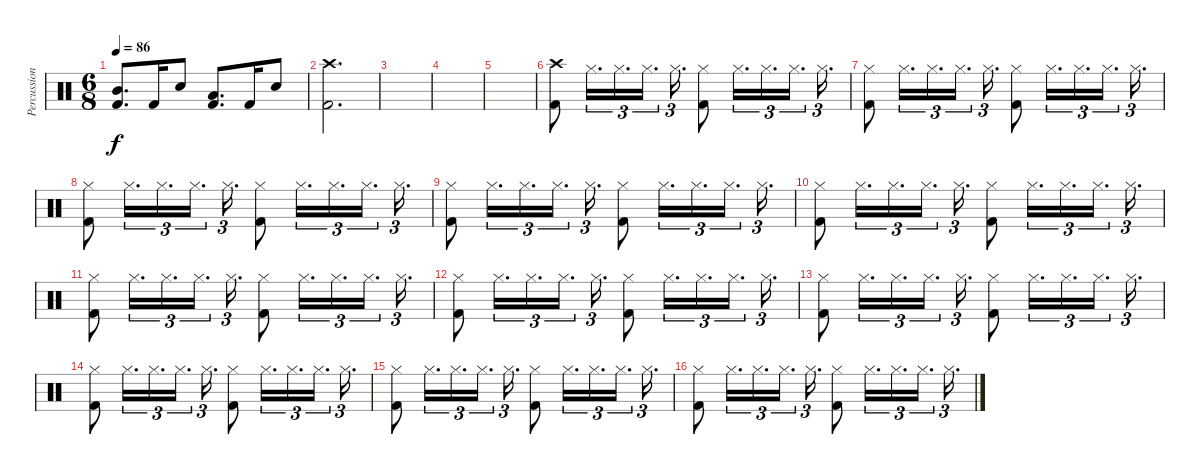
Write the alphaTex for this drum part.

\track ("Percussion" "Percussion") {instrument percussion}
\staff {score}
\articulation defaults
\ts (6 8)
\tempo 86
\clef neutral
\ks c
("Mid Tom (hit)" "Kick (hit) 2").8{d dy f} "Kick (hit) 2".16 "Snare (hit) 2".8 ("Low Tom (hit)" "Kick (hit) 2").8{d} "Kick (hit) 2".16 "Snare (hit) 2".8 |
("Crash high (hit)" "Kick (hit) 2").2{d} |
|
|
|
("Crash high (hit)" "Kick (hit) 2").8 "Hi-Hat (closed)".16{d tu (3 2)} "Hi-Hat (closed)".16{d tu (3 2)} "Hi-Hat (closed)".16{d tu (3 2)} "Hi-Hat (closed)".16{d tu (3 2)} ("Hi-Hat (closed)" "Kick (hit) 2").8 "Hi-Hat (closed)".16{d tu (3 2)} "Hi-Hat (closed)".16{d tu (3 2)} "Hi-Hat (closed)".16{d tu (3 2)} "Hi-Hat (closed)".16{d tu (3 2)} |
("Hi-Hat (closed)" "Kick (hit) 2").8 "Hi-Hat (closed)".16{d tu (3 2)} "Hi-Hat (closed)".16{d tu (3 2)} "Hi-Hat (closed)".16{d tu (3 2)} "Hi-Hat (closed)".16{d tu (3 2)} ("Hi-Hat (closed)" "Kick (hit) 2").8 "Hi-Hat (closed)".16{d tu (3 2)} "Hi-Hat (closed)".16{d tu (3 2)} "Hi-Hat (closed)".16{d tu (3 2)} "Hi-Hat (closed)".16{d tu (3 2)} |
("Hi-Hat (closed)" "Kick (hit) 2").8 "Hi-Hat (closed)".16{d tu (3 2)} "Hi-Hat (closed)".16{d tu (3 2)} "Hi-Hat (closed)".16{d tu (3 2)} "Hi-Hat (closed)".16{d tu (3 2)} ("Hi-Hat (closed)" "Kick (hit) 2").8 "Hi-Hat (closed)".16{d tu (3 2)} "Hi-Hat (closed)".16{d tu (3 2)} "Hi-Hat (closed)".16{d tu (3 2)} "Hi-Hat (closed)".16{d tu (3 2)} |
("Hi-Hat (closed)" "Kick (hit) 2").8 "Hi-Hat (closed)".16{d tu (3 2)} "Hi-Hat (closed)".16{d tu (3 2)} "Hi-Hat (closed)".16{d tu (3 2)} "Hi-Hat (closed)".16{d tu (3 2)} ("Hi-Hat (closed)" "Kick (hit) 2").8 "Hi-Hat (closed)".16{d tu (3 2)} "Hi-Hat (closed)".16{d tu (3 2)} "Hi-Hat (closed)".16{d tu (3 2)} "Hi-Hat (closed)".16{d tu (3 2)} |
("Hi-Hat (closed)" "Kick (hit) 2").8 "Hi-Hat (closed)".16{d tu (3 2)} "Hi-Hat (closed)".16{d tu (3 2)} "Hi-Hat (closed)".16{d tu (3 2)} "Hi-Hat (closed)".16{d tu (3 2)} ("Hi-Hat (closed)" "Kick (hit) 2").8 "Hi-Hat (closed)".16{d tu (3 2)} "Hi-Hat (closed)".16{d tu (3 2)} "Hi-Hat (closed)".16{d tu (3 2)} "Hi-Hat (closed)".16{d tu (3 2)} |
("Hi-Hat (closed)" "Kick (hit) 2").8 "Hi-Hat (closed)".16{d tu (3 2)} "Hi-Hat (closed)".16{d tu (3 2)} "Hi-Hat (closed)".16{d tu (3 2)} "Hi-Hat (closed)".16{d tu (3 2)} ("Hi-Hat (closed)" "Kick (hit) 2").8 "Hi-Hat (closed)".16{d tu (3 2)} "Hi-Hat (closed)".16{d tu (3 2)} "Hi-Hat (closed)".16{d tu (3 2)} "Hi-Hat (closed)".16{d tu (3 2)} |
("Hi-Hat (closed)" "Kick (hit) 2").8 "Hi-Hat (closed)".16{d tu (3 2)} "Hi-Hat (closed)".16{d tu (3 2)} "Hi-Hat (closed)".16{d tu (3 2)} "Hi-Hat (closed)".16{d tu (3 2)} ("Hi-Hat (closed)" "Kick (hit) 2").8 "Hi-Hat (closed)".16{d tu (3 2)} "Hi-Hat (closed)".16{d tu (3 2)} "Hi-Hat (closed)".16{d tu (3 2)} "Hi-Hat (closed)".16{d tu (3 2)} |
("Hi-Hat (closed)" "Kick (hit) 2").8 "Hi-Hat (closed)".16{d tu (3 2)} "Hi-Hat (closed)".16{d tu (3 2)} "Hi-Hat (closed)".16{d tu (3 2)} "Hi-Hat (closed)".16{d tu (3 2)} ("Hi-Hat (closed)" "Kick (hit) 2").8 "Hi-Hat (closed)".16{d tu (3 2)} "Hi-Hat (closed)".16{d tu (3 2)} "Hi-Hat (closed)".16{d tu (3 2)} "Hi-Hat (closed)".16{d tu (3 2)} |
("Hi-Hat (closed)" "Kick (hit) 2").8 "Hi-Hat (closed)".16{d tu (3 2)} "Hi-Hat (closed)".16{d tu (3 2)} "Hi-Hat (closed)".16{d tu (3 2)} "Hi-Hat (closed)".16{d tu (3 2)} ("Hi-Hat (closed)" "Kick (hit) 2").8 "Hi-Hat (closed)".16{d tu (3 2)} "Hi-Hat (closed)".16{d tu (3 2)} "Hi-Hat (closed)".16{d tu (3 2)} "Hi-Hat (closed)".16{d tu (3 2)} |
("Hi-Hat (closed)" "Kick (hit) 2").8 "Hi-Hat (closed)".16{d tu (3 2)} "Hi-Hat (closed)".16{d tu (3 2)} "Hi-Hat (closed)".16{d tu (3 2)} "Hi-Hat (closed)".16{d tu (3 2)} ("Hi-Hat (closed)" "Kick (hit) 2").8 "Hi-Hat (closed)".16{d tu (3 2)} "Hi-Hat (closed)".16{d tu (3 2)} "Hi-Hat (closed)".16{d tu (3 2)} "Hi-Hat (closed)".16{d tu (3 2)} |
("Hi-Hat (closed)" "Kick (hit) 2").8 "Hi-Hat (closed)".16{d tu (3 2)} "Hi-Hat (closed)".16{d tu (3 2)} "Hi-Hat (closed)".16{d tu (3 2)} "Hi-Hat (closed)".16{d tu (3 2)} ("Hi-Hat (closed)" "Kick (hit) 2").8 "Hi-Hat (closed)".16{d tu (3 2)} "Hi-Hat (closed)".16{d tu (3 2)} "Hi-Hat (closed)".16{d tu (3 2)} "Hi-Hat (closed)".16{d tu (3 2)}
